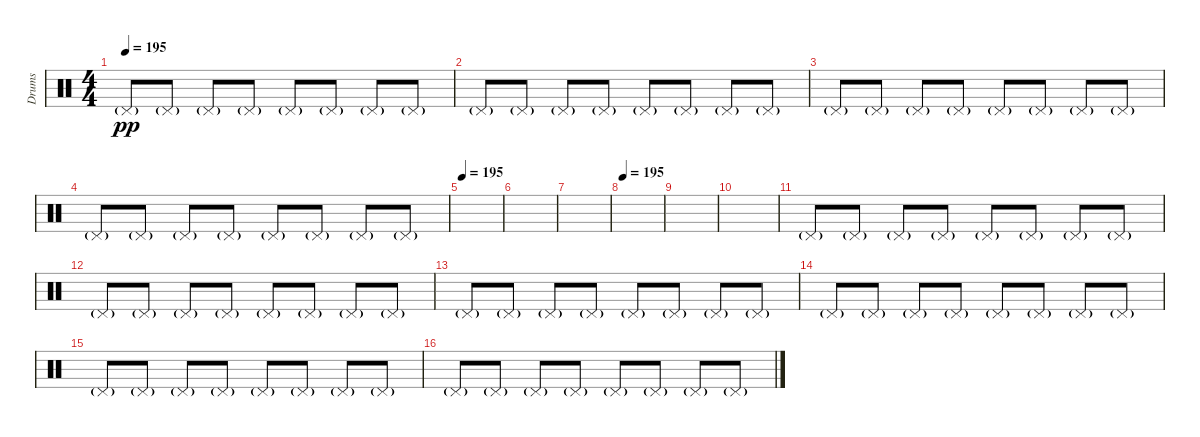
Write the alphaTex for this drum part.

\track ("Drums" "Drums") {instrument percussion}
\staff {score}
\articulation defaults
\ts (4 4)
\tempo 195
\clef neutral
\ks c "Pedal Hi-Hat (hit)"{g}.8{dy pp} "Pedal Hi-Hat (hit)"{g}.8 "Pedal Hi-Hat (hit)"{g}.8 "Pedal Hi-Hat (hit)"{g}.8 "Pedal Hi-Hat (hit)"{g}.8 "Pedal Hi-Hat (hit)"{g}.8 "Pedal Hi-Hat (hit)"{g}.8 "Pedal Hi-Hat (hit)"{g}.8
|
"Pedal Hi-Hat (hit)"{g}.8 "Pedal Hi-Hat (hit)"{g}.8 "Pedal Hi-Hat (hit)"{g}.8 "Pedal Hi-Hat (hit)"{g}.8 "Pedal Hi-Hat (hit)"{g}.8 "Pedal Hi-Hat (hit)"{g}.8 "Pedal Hi-Hat (hit)"{g}.8 "Pedal Hi-Hat (hit)"{g}.8 |
"Pedal Hi-Hat (hit)"{g}.8 "Pedal Hi-Hat (hit)"{g}.8 "Pedal Hi-Hat (hit)"{g}.8 "Pedal Hi-Hat (hit)"{g}.8 "Pedal Hi-Hat (hit)"{g}.8 "Pedal Hi-Hat (hit)"{g}.8 "Pedal Hi-Hat (hit)"{g}.8 "Pedal Hi-Hat (hit)"{g}.8 |
"Pedal Hi-Hat (hit)"{g}.8 "Pedal Hi-Hat (hit)"{g}.8 "Pedal Hi-Hat (hit)"{g}.8 "Pedal Hi-Hat (hit)"{g}.8 "Pedal Hi-Hat (hit)"{g}.8 "Pedal Hi-Hat (hit)"{g}.8 "Pedal Hi-Hat (hit)"{g}.8 "Pedal Hi-Hat (hit)"{g}.8 |
\tempo 195
|
|
|
\tempo 195
|
|
|
"Pedal Hi-Hat (hit)"{g}.8 "Pedal Hi-Hat (hit)"{g}.8 "Pedal Hi-Hat (hit)"{g}.8 "Pedal Hi-Hat (hit)"{g}.8 "Pedal Hi-Hat (hit)"{g}.8 "Pedal Hi-Hat (hit)"{g}.8 "Pedal Hi-Hat (hit)"{g}.8 "Pedal Hi-Hat (hit)"{g}.8 |
"Pedal Hi-Hat (hit)"{g}.8 "Pedal Hi-Hat (hit)"{g}.8 "Pedal Hi-Hat (hit)"{g}.8 "Pedal Hi-Hat (hit)"{g}.8 "Pedal Hi-Hat (hit)"{g}.8 "Pedal Hi-Hat (hit)"{g}.8 "Pedal Hi-Hat (hit)"{g}.8 "Pedal Hi-Hat (hit)"{g}.8 |
"Pedal Hi-Hat (hit)"{g}.8 "Pedal Hi-Hat (hit)"{g}.8 "Pedal Hi-Hat (hit)"{g}.8 "Pedal Hi-Hat (hit)"{g}.8 "Pedal Hi-Hat (hit)"{g}.8 "Pedal Hi-Hat (hit)"{g}.8 "Pedal Hi-Hat (hit)"{g}.8 "Pedal Hi-Hat (hit)"{g}.8 |
"Pedal Hi-Hat (hit)"{g}.8 "Pedal Hi-Hat (hit)"{g}.8 "Pedal Hi-Hat (hit)"{g}.8 "Pedal Hi-Hat (hit)"{g}.8 "Pedal Hi-Hat (hit)"{g}.8 "Pedal Hi-Hat (hit)"{g}.8 "Pedal Hi-Hat (hit)"{g}.8 "Pedal Hi-Hat (hit)"{g}.8 |
"Pedal Hi-Hat (hit)"{g}.8 "Pedal Hi-Hat (hit)"{g}.8 "Pedal Hi-Hat (hit)"{g}.8 "Pedal Hi-Hat (hit)"{g}.8 "Pedal Hi-Hat (hit)"{g}.8 "Pedal Hi-Hat (hit)"{g}.8 "Pedal Hi-Hat (hit)"{g}.8 "Pedal Hi-Hat (hit)"{g}.8 |
"Pedal Hi-Hat (hit)"{g}.8 "Pedal Hi-Hat (hit)"{g}.8 "Pedal Hi-Hat (hit)"{g}.8 "Pedal Hi-Hat (hit)"{g}.8 "Pedal Hi-Hat (hit)"{g}.8 "Pedal Hi-Hat (hit)"{g}.8 "Pedal Hi-Hat (hit)"{g}.8 "Pedal Hi-Hat (hit)"{g}.8
